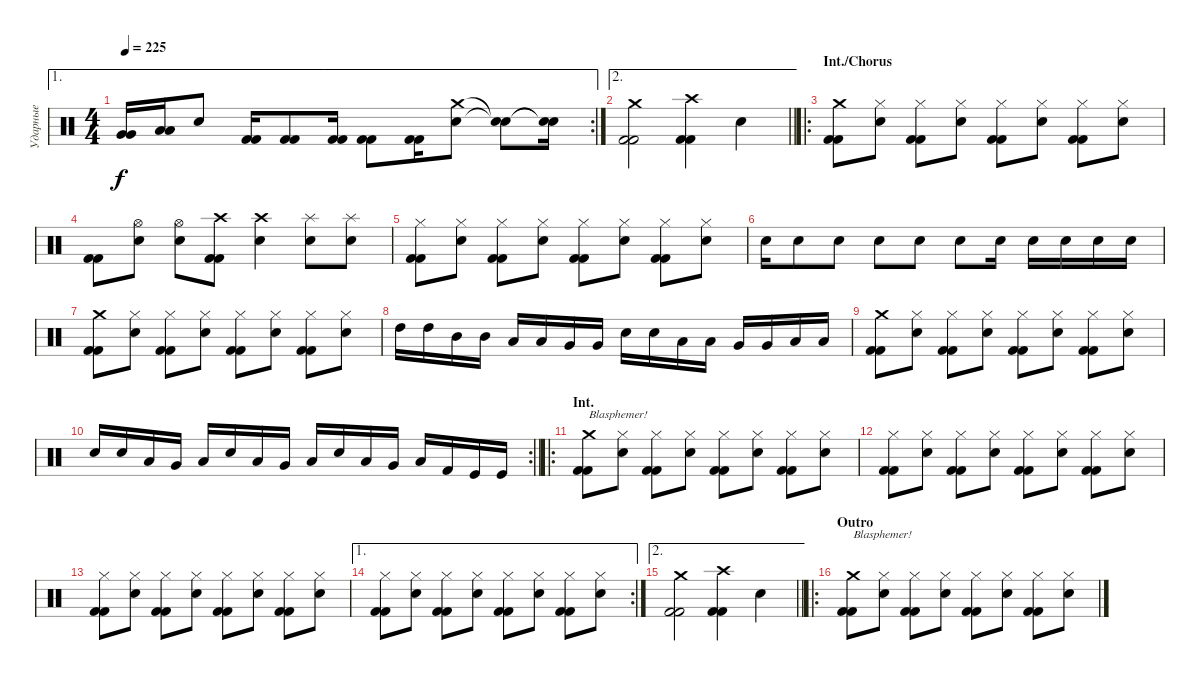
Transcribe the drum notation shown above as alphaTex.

\track ("Ударные" "Ударные") {instrument percussion}
\staff {score}
\articulation defaults
\ae 1
\rc 2
\ts (4 4)
\tempo 225
\clef neutral
\ks c
("Very Low Tom (hit)" "Very Low Tom (hit)").16{dy f} ("Low Tom (hit)" "Low Tom (hit)").16 "Snare (hit) 2".8 ("Kick (hit) 2" "Kick (hit) 2").16 ("Kick (hit) 2" "Kick (hit) 2").8 ("Kick (hit) 2" "Kick (hit) 2").16 ("Kick (hit) 2" "Kick (hit) 2").8 ("Kick (hit) 2" "Kick (hit) 2").16 ("Crash medium (hit)" "Snare (hit) 2").8 ("Snare (hit)"{t} "Snare (hit)"{t}).8 ("Snare (hit)"{t} "Snare (hit)"{t}).16 |
\ae 2
\barLineRight lightlight
("Crash medium (hit)" "Kick (hit) 2" "Kick (hit) 2").2 ("Crash high (hit)" "Kick (hit) 2" "Kick (hit) 2").4 "Snare (hit) 2".4 |
\ro
\section ("" "Int./Chorus")
("Crash medium (hit)" "Kick (hit) 2" "Kick (hit) 2").8 ("Hi-Hat (closed)" "Snare (hit) 2").8 ("Hi-Hat (closed)" "Kick (hit) 2" "Kick (hit) 2").8 ("Hi-Hat (closed)" "Snare (hit) 2").8 ("Hi-Hat (closed)" "Kick (hit) 2" "Kick (hit) 2").8 ("Hi-Hat (closed)" "Snare (hit) 2").8 ("Hi-Hat (closed)" "Kick (hit) 2" "Kick (hit) 2").8 ("Hi-Hat (closed)" "Snare (hit) 2").8 |
("Kick (hit) 2" "Kick (hit) 2").8 ("Hi-Hat (open)" "Snare (hit) 2").8 ("Hi-Hat (open)" "Snare (hit) 2").8 ("Crash high (hit)" "Kick (hit) 2" "Kick (hit) 2").8 ("Crash high (hit)" "Snare (hit) 2").4 ("Splash (hit)" "Snare (hit) 2").8 ("Splash (hit)" "Snare (hit) 2").8 |
("Hi-Hat (closed)" "Kick (hit) 2" "Kick (hit) 2").8 ("Hi-Hat (closed)" "Snare (hit) 2").8 ("Hi-Hat (closed)" "Kick (hit) 2" "Kick (hit) 2").8 ("Hi-Hat (closed)" "Snare (hit) 2").8 ("Hi-Hat (closed)" "Kick (hit) 2" "Kick (hit) 2").8 ("Hi-Hat (closed)" "Snare (hit) 2").8 ("Hi-Hat (closed)" "Kick (hit) 2" "Kick (hit) 2").8 ("Hi-Hat (closed)" "Snare (hit) 2").8 |
"Snare (hit) 2".16 "Snare (hit) 2".8 "Snare (hit) 2".8 "Snare (hit) 2".8 "Snare (hit) 2".8 "Snare (hit) 2".8 "Snare (hit) 2".16 "Snare (hit) 2".16 "Snare (hit) 2".16 "Snare (hit) 2".16 "Snare (hit) 2".16 |
("Crash medium (hit)" "Kick (hit) 2" "Kick (hit) 2").8 ("Hi-Hat (closed)" "Snare (hit) 2").8 ("Hi-Hat (closed)" "Kick (hit) 2" "Kick (hit) 2").8 ("Hi-Hat (closed)" "Snare (hit) 2").8 ("Hi-Hat (closed)" "Kick (hit) 2" "Kick (hit) 2").8 ("Hi-Hat (closed)" "Snare (hit) 2").8 ("Hi-Hat (closed)" "Kick (hit) 2" "Kick (hit) 2").8 ("Hi-Hat (closed)" "Snare (hit) 2").8 |
"High Tom (hit)".16 "High Tom (hit)".16 "Mid Tom (hit)".16 "Mid Tom (hit)".16 "Low Tom (hit)".16 "Low Tom (hit)".16 "Very Low Tom (hit)".16 "Very Low Tom (hit)".16 "Snare (hit) 2".16 "Snare (hit) 2".16 "Low Tom (hit)".16 "Low Tom (hit)".16 "Very Low Tom (hit)".16 "Very Low Tom (hit)".16 "Low Floor Tom (hit)".16 "Low Floor Tom (hit)".16 |
("Crash medium (hit)" "Kick (hit) 2" "Kick (hit) 2").8 ("Hi-Hat (closed)" "Snare (hit) 2").8 ("Hi-Hat (closed)" "Kick (hit) 2" "Kick (hit) 2").8 ("Hi-Hat (closed)" "Snare (hit) 2").8 ("Hi-Hat (closed)" "Kick (hit) 2" "Kick (hit) 2").8 ("Hi-Hat (closed)" "Snare (hit) 2").8 ("Hi-Hat (closed)" "Kick (hit) 2" "Kick (hit) 2").8 ("Hi-Hat (closed)" "Snare (hit) 2").8 |
\rc 2
\barLineRight lightlight "Snare (hit) 2".16 "Snare (hit) 2".16 "Low Tom (hit)".16 "Very Low Tom (hit)".16 "Low Floor Tom (hit)".16 "Snare (hit) 2".16 "Low Tom (hit)".16 "Very Low Tom (hit)".16 "Low Floor Tom (hit)".16 "Snare (hit) 2".16 "Low Tom (hit)".16 "Very Low Tom (hit)".16 "Low Floor Tom (hit)".16 "Kick (hit) 2".16 "Kick (hit)".16 "Kick (hit)".16
|
\ro
\section ("" "Int.")
("Crash medium (hit)" "Kick (hit) 2" "Kick (hit) 2").8{txt "Blasphemer!"} ("Hi-Hat (closed)" "Snare (hit) 2").8 ("Hi-Hat (closed)" "Kick (hit) 2" "Kick (hit) 2").8 ("Hi-Hat (closed)" "Snare (hit) 2").8 ("Hi-Hat (closed)" "Kick (hit) 2" "Kick (hit) 2").8 ("Hi-Hat (closed)" "Snare (hit) 2").8 ("Hi-Hat (closed)" "Kick (hit) 2" "Kick (hit) 2").8 ("Hi-Hat (closed)" "Snare (hit) 2").8 |
("Hi-Hat (closed)" "Kick (hit) 2" "Kick (hit) 2").8 ("Hi-Hat (closed)" "Snare (hit) 2").8 ("Hi-Hat (closed)" "Kick (hit) 2" "Kick (hit) 2").8 ("Hi-Hat (closed)" "Snare (hit) 2").8 ("Hi-Hat (closed)" "Kick (hit) 2" "Kick (hit) 2").8 ("Hi-Hat (closed)" "Snare (hit) 2").8 ("Hi-Hat (closed)" "Kick (hit) 2" "Kick (hit) 2").8 ("Hi-Hat (closed)" "Snare (hit) 2").8 |
("Hi-Hat (closed)" "Kick (hit) 2" "Kick (hit) 2").8 ("Hi-Hat (closed)" "Snare (hit) 2").8 ("Hi-Hat (closed)" "Kick (hit) 2" "Kick (hit) 2").8 ("Hi-Hat (closed)" "Snare (hit) 2").8 ("Hi-Hat (closed)" "Kick (hit) 2" "Kick (hit) 2").8 ("Hi-Hat (closed)" "Snare (hit) 2").8 ("Hi-Hat (closed)" "Kick (hit) 2" "Kick (hit) 2").8 ("Hi-Hat (closed)" "Snare (hit) 2").8 |
\ae 1
\rc 2
("Hi-Hat (closed)" "Kick (hit) 2" "Kick (hit) 2").8 ("Hi-Hat (closed)" "Snare (hit) 2").8 ("Hi-Hat (closed)" "Kick (hit) 2" "Kick (hit) 2").8 ("Hi-Hat (closed)" "Snare (hit) 2").8 ("Hi-Hat (closed)" "Kick (hit) 2" "Kick (hit) 2").8 ("Hi-Hat (closed)" "Snare (hit) 2").8 ("Hi-Hat (closed)" "Kick (hit) 2" "Kick (hit) 2").8 ("Hi-Hat (closed)" "Snare (hit) 2").8 |
\ae 2
\barLineRight lightlight
("Crash medium (hit)" "Kick (hit) 2" "Kick (hit) 2").2 ("Crash high (hit)" "Kick (hit) 2" "Kick (hit) 2").4 "Snare (hit) 2".4 |
\ro
\section ("" "Outro")
("Crash medium (hit)" "Kick (hit) 2" "Kick (hit) 2").8{txt "Blasphemer!"} ("Hi-Hat (closed)" "Snare (hit) 2").8 ("Hi-Hat (closed)" "Kick (hit) 2" "Kick (hit) 2").8 ("Hi-Hat (closed)" "Snare (hit) 2").8 ("Hi-Hat (closed)" "Kick (hit) 2" "Kick (hit) 2").8 ("Hi-Hat (closed)" "Snare (hit) 2").8 ("Hi-Hat (closed)" "Kick (hit) 2" "Kick (hit) 2").8 ("Hi-Hat (closed)" "Snare (hit) 2").8
